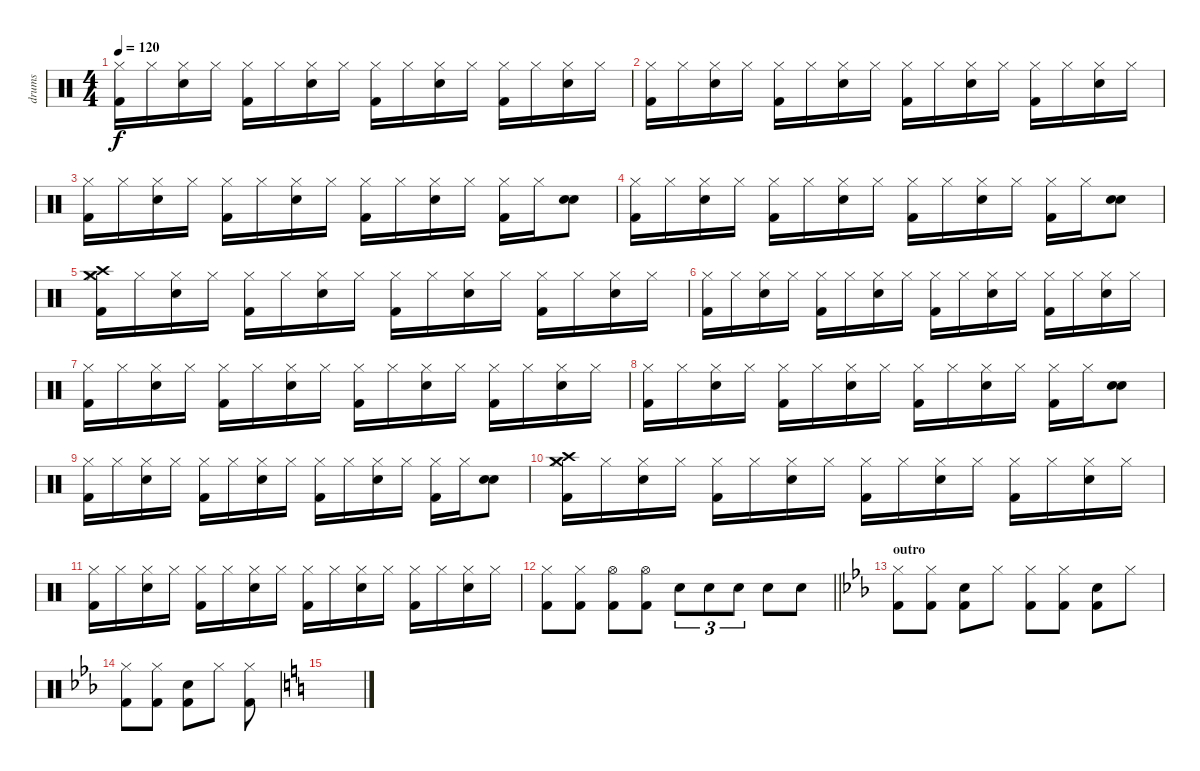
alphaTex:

\track ("drums" "drums") {instrument percussion}
\staff {score}
\articulation defaults
\ts (4 4)
\tempo 120
\clef neutral
\ks c
("Hi-Hat (closed)" "Kick (hit) 2").16{dy f} "Hi-Hat (closed)".16 ("Hi-Hat (closed)" "Electric Snare (hit)").16 "Hi-Hat (closed)".16 ("Hi-Hat (closed)" "Kick (hit) 2").16 "Hi-Hat (closed)".16 ("Hi-Hat (closed)" "Electric Snare (hit)").16 "Hi-Hat (closed)".16 ("Hi-Hat (closed)" "Kick (hit) 2").16 "Hi-Hat (closed)".16 ("Hi-Hat (closed)" "Electric Snare (hit)").16 "Hi-Hat (closed)".16 ("Hi-Hat (closed)" "Kick (hit) 2").16 "Hi-Hat (closed)".16 ("Hi-Hat (closed)" "Electric Snare (hit)").16 "Hi-Hat (closed)".16 |
("Hi-Hat (closed)" "Kick (hit) 2").16 "Hi-Hat (closed)".16 ("Hi-Hat (closed)" "Electric Snare (hit)").16 "Hi-Hat (closed)".16 ("Hi-Hat (closed)" "Kick (hit) 2").16 "Hi-Hat (closed)".16 ("Hi-Hat (closed)" "Electric Snare (hit)").16 "Hi-Hat (closed)".16 ("Hi-Hat (closed)" "Kick (hit) 2").16 "Hi-Hat (closed)".16 ("Hi-Hat (closed)" "Electric Snare (hit)").16 "Hi-Hat (closed)".16 ("Hi-Hat (closed)" "Kick (hit) 2").16 "Hi-Hat (closed)".16 ("Hi-Hat (closed)" "Electric Snare (hit)").16 "Hi-Hat (closed)".16 |
("Hi-Hat (closed)" "Kick (hit) 2").16 "Hi-Hat (closed)".16 ("Hi-Hat (closed)" "Electric Snare (hit)").16 "Hi-Hat (closed)".16 ("Hi-Hat (closed)" "Kick (hit) 2").16 "Hi-Hat (closed)".16 ("Hi-Hat (closed)" "Electric Snare (hit)").16 "Hi-Hat (closed)".16 ("Hi-Hat (closed)" "Kick (hit) 2").16 "Hi-Hat (closed)".16 ("Hi-Hat (closed)" "Electric Snare (hit)").16 "Hi-Hat (closed)".16 ("Hi-Hat (closed)" "Kick (hit) 2").16 "Hi-Hat (closed)".16 ("Electric Snare (hit)" "Electric Snare (hit)").8 |
("Hi-Hat (closed)" "Kick (hit) 2").16 "Hi-Hat (closed)".16 ("Hi-Hat (closed)" "Electric Snare (hit)").16 "Hi-Hat (closed)".16 ("Hi-Hat (closed)" "Kick (hit) 2").16 "Hi-Hat (closed)".16 ("Hi-Hat (closed)" "Electric Snare (hit)").16 "Hi-Hat (closed)".16 ("Hi-Hat (closed)" "Kick (hit) 2").16 "Hi-Hat (closed)".16 ("Hi-Hat (closed)" "Electric Snare (hit)").16 "Hi-Hat (closed)".16 ("Hi-Hat (closed)" "Kick (hit) 2").16 "Hi-Hat (closed)".16 ("Electric Snare (hit)" "Electric Snare (hit)").8 |
("Crash medium (hit)" "Hi-Hat (closed)" "Crash high (hit)" "Kick (hit) 2").16 "Hi-Hat (closed)".16 ("Hi-Hat (closed)" "Electric Snare (hit)").16 "Hi-Hat (closed)".16 ("Hi-Hat (closed)" "Kick (hit) 2").16 "Hi-Hat (closed)".16 ("Hi-Hat (closed)" "Electric Snare (hit)").16 "Hi-Hat (closed)".16 ("Hi-Hat (closed)" "Kick (hit) 2").16 "Hi-Hat (closed)".16 ("Hi-Hat (closed)" "Electric Snare (hit)").16 "Hi-Hat (closed)".16 ("Hi-Hat (closed)" "Kick (hit) 2").16 "Hi-Hat (closed)".16 ("Hi-Hat (closed)" "Electric Snare (hit)").16 "Hi-Hat (closed)".16 |
("Hi-Hat (closed)" "Kick (hit) 2").16 "Hi-Hat (closed)".16 ("Hi-Hat (closed)" "Electric Snare (hit)").16 "Hi-Hat (closed)".16 ("Hi-Hat (closed)" "Kick (hit) 2").16 "Hi-Hat (closed)".16 ("Hi-Hat (closed)" "Electric Snare (hit)").16 "Hi-Hat (closed)".16 ("Hi-Hat (closed)" "Kick (hit) 2").16 "Hi-Hat (closed)".16 ("Hi-Hat (closed)" "Electric Snare (hit)").16 "Hi-Hat (closed)".16 ("Hi-Hat (closed)" "Kick (hit) 2").16 "Hi-Hat (closed)".16 ("Hi-Hat (closed)" "Electric Snare (hit)").16 "Hi-Hat (closed)".16 |
("Hi-Hat (closed)" "Kick (hit) 2").16 "Hi-Hat (closed)".16 ("Hi-Hat (closed)" "Electric Snare (hit)").16 "Hi-Hat (closed)".16 ("Hi-Hat (closed)" "Kick (hit) 2").16 "Hi-Hat (closed)".16 ("Hi-Hat (closed)" "Electric Snare (hit)").16 "Hi-Hat (closed)".16 ("Hi-Hat (closed)" "Kick (hit) 2").16 "Hi-Hat (closed)".16 ("Hi-Hat (closed)" "Electric Snare (hit)").16 "Hi-Hat (closed)".16 ("Hi-Hat (closed)" "Kick (hit) 2").16 "Hi-Hat (closed)".16 ("Hi-Hat (closed)" "Electric Snare (hit)").16 "Hi-Hat (closed)".16 |
("Hi-Hat (closed)" "Kick (hit) 2").16 "Hi-Hat (closed)".16 ("Hi-Hat (closed)" "Electric Snare (hit)").16 "Hi-Hat (closed)".16 ("Hi-Hat (closed)" "Kick (hit) 2").16 "Hi-Hat (closed)".16 ("Hi-Hat (closed)" "Electric Snare (hit)").16 "Hi-Hat (closed)".16 ("Hi-Hat (closed)" "Kick (hit) 2").16 "Hi-Hat (closed)".16 ("Hi-Hat (closed)" "Electric Snare (hit)").16 "Hi-Hat (closed)".16 ("Hi-Hat (closed)" "Kick (hit) 2").16 "Hi-Hat (closed)".16 ("Electric Snare (hit)" "Electric Snare (hit)").8 |
("Hi-Hat (closed)" "Kick (hit) 2").16 "Hi-Hat (closed)".16 ("Hi-Hat (closed)" "Electric Snare (hit)").16 "Hi-Hat (closed)".16 ("Hi-Hat (closed)" "Kick (hit) 2").16 "Hi-Hat (closed)".16 ("Hi-Hat (closed)" "Electric Snare (hit)").16 "Hi-Hat (closed)".16 ("Hi-Hat (closed)" "Kick (hit) 2").16 "Hi-Hat (closed)".16 ("Hi-Hat (closed)" "Electric Snare (hit)").16 "Hi-Hat (closed)".16 ("Hi-Hat (closed)" "Kick (hit) 2").16 "Hi-Hat (closed)".16 ("Electric Snare (hit)" "Electric Snare (hit)").8 |
("Crash medium (hit)" "Hi-Hat (closed)" "Crash high (hit)" "Kick (hit) 2").16 "Hi-Hat (closed)".16 ("Hi-Hat (closed)" "Electric Snare (hit)").16 "Hi-Hat (closed)".16 ("Hi-Hat (closed)" "Kick (hit) 2").16 "Hi-Hat (closed)".16 ("Hi-Hat (closed)" "Electric Snare (hit)").16 "Hi-Hat (closed)".16 ("Hi-Hat (closed)" "Kick (hit) 2").16 "Hi-Hat (closed)".16 ("Hi-Hat (closed)" "Electric Snare (hit)").16 "Hi-Hat (closed)".16 ("Hi-Hat (closed)" "Kick (hit) 2").16 "Hi-Hat (closed)".16 ("Hi-Hat (closed)" "Electric Snare (hit)").16 "Hi-Hat (closed)".16 |
("Hi-Hat (closed)" "Kick (hit) 2").16 "Hi-Hat (closed)".16 ("Hi-Hat (closed)" "Electric Snare (hit)").16 "Hi-Hat (closed)".16 ("Hi-Hat (closed)" "Kick (hit) 2").16 "Hi-Hat (closed)".16 ("Hi-Hat (closed)" "Electric Snare (hit)").16 "Hi-Hat (closed)".16 ("Hi-Hat (closed)" "Kick (hit) 2").16 "Hi-Hat (closed)".16 ("Hi-Hat (closed)" "Electric Snare (hit)").16 "Hi-Hat (closed)".16 ("Hi-Hat (closed)" "Kick (hit) 2").16 "Hi-Hat (closed)".16 ("Hi-Hat (closed)" "Electric Snare (hit)").16 "Hi-Hat (closed)".16 |
\barLineRight lightlight
("Kick (hit) 2" "Hi-Hat (closed)").8 ("Kick (hit) 2" "Hi-Hat (closed)").8 ("Kick (hit) 2" "Hi-Hat (open)").8 ("Kick (hit) 2" "Hi-Hat (open)").8 "Snare (hit) 2".8{tu (3 2)} "Snare (hit) 2".8{tu (3 2)} "Snare (hit) 2".8{tu (3 2)} "Snare (hit) 2".8 "Snare (hit) 2".8 |
\section ("" "outro")
\ks eb
("Kick (hit) 2" "Hi-Hat (closed)").8 ("Kick (hit) 2" "Hi-Hat (closed)").8 ("Kick (hit) 2" "Snare (hit) 2").8 "Hi-Hat (closed)".8 ("Kick (hit) 2" "Hi-Hat (closed)").8 ("Kick (hit) 2" "Hi-Hat (closed)").8 ("Kick (hit) 2" "Snare (hit) 2").8 "Hi-Hat (closed)".8 |
("Kick (hit) 2" "Hi-Hat (closed)").8 ("Kick (hit) 2" "Hi-Hat (closed)").8 ("Kick (hit) 2" "Snare (hit) 2").8 "Hi-Hat (closed)".8 ("Kick (hit) 2" "Hi-Hat (closed)").8 |
\ks c
